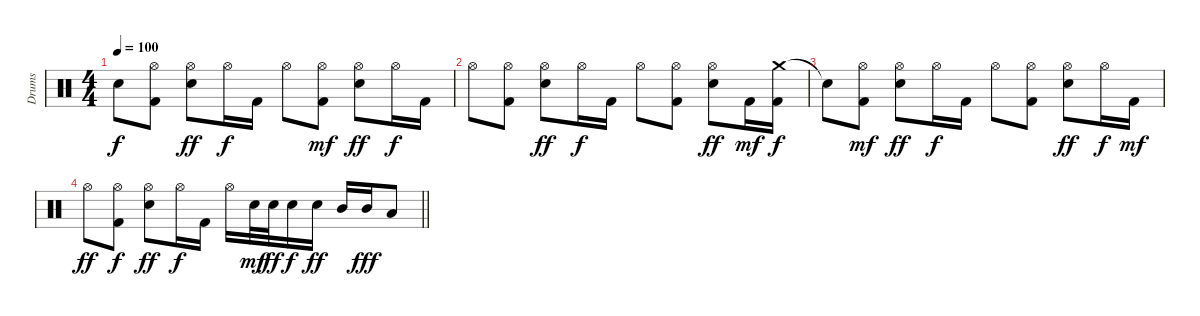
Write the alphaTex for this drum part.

\track ("Drums" "Drums") {instrument percussion}
\staff {score}
\articulation defaults
\ts (4 4)
\tempo 100
\clef neutral
\ks c "Snare (hit)"{t}.8{dy f}
("Hi-Hat (open)" "Kick (hit) 2").8 ("Hi-Hat (open)" "Snare (hit) 2").8{dy ff} "Hi-Hat (open)".16{dy f} "Kick (hit) 2".16 "Hi-Hat (open)".8 ("Hi-Hat (open)" "Kick (hit) 2").8{dy mf} ("Hi-Hat (open)" "Snare (hit) 2").8{dy ff} "Hi-Hat (open)".16{dy f} "Kick (hit) 2".16 |
"Hi-Hat (open)".8 ("Hi-Hat (open)" "Kick (hit) 2").8 ("Hi-Hat (open)" "Snare (hit) 2").8{dy ff} "Hi-Hat (open)".16{dy f} "Kick (hit) 2".16 "Hi-Hat (open)".8 ("Hi-Hat (open)" "Kick (hit) 2").8 ("Hi-Hat (open)" "Snare (hit) 2").8{dy ff} "Kick (hit) 2".16{dy mf} ("Crash medium (hit)" "Kick (hit) 2").16{dy f} |
"Snare (hit)"{t}.8 ("Hi-Hat (open)" "Kick (hit) 2").8{dy mf} ("Hi-Hat (open)" "Snare (hit) 2").8{dy ff} "Hi-Hat (open)".16{dy f} "Kick (hit) 2".16 "Hi-Hat (open)".8 ("Hi-Hat (open)" "Kick (hit) 2").8 ("Hi-Hat (open)" "Snare (hit) 2").8{dy ff} "Hi-Hat (open)".16{dy f} "Kick (hit) 2".16{dy mf} |
\barLineRight lightlight "Hi-Hat (open)".8{dy ff}
("Hi-Hat (open)" "Kick (hit) 2").8{dy f} ("Hi-Hat (open)" "Snare (hit) 2").8{dy ff} "Hi-Hat (open)".16{dy f} "Kick (hit) 2".16 "Hi-Hat (open)".16 "Snare (hit) 2".32{dy mf} "Snare (hit) 2".32{dy ff} "Snare (hit) 2".16{dy f} "Snare (hit) 2".16{dy ff} "Mid Tom (hit)".16 "Mid Tom (hit)".16{dy fff} "Low Tom (hit)".8
